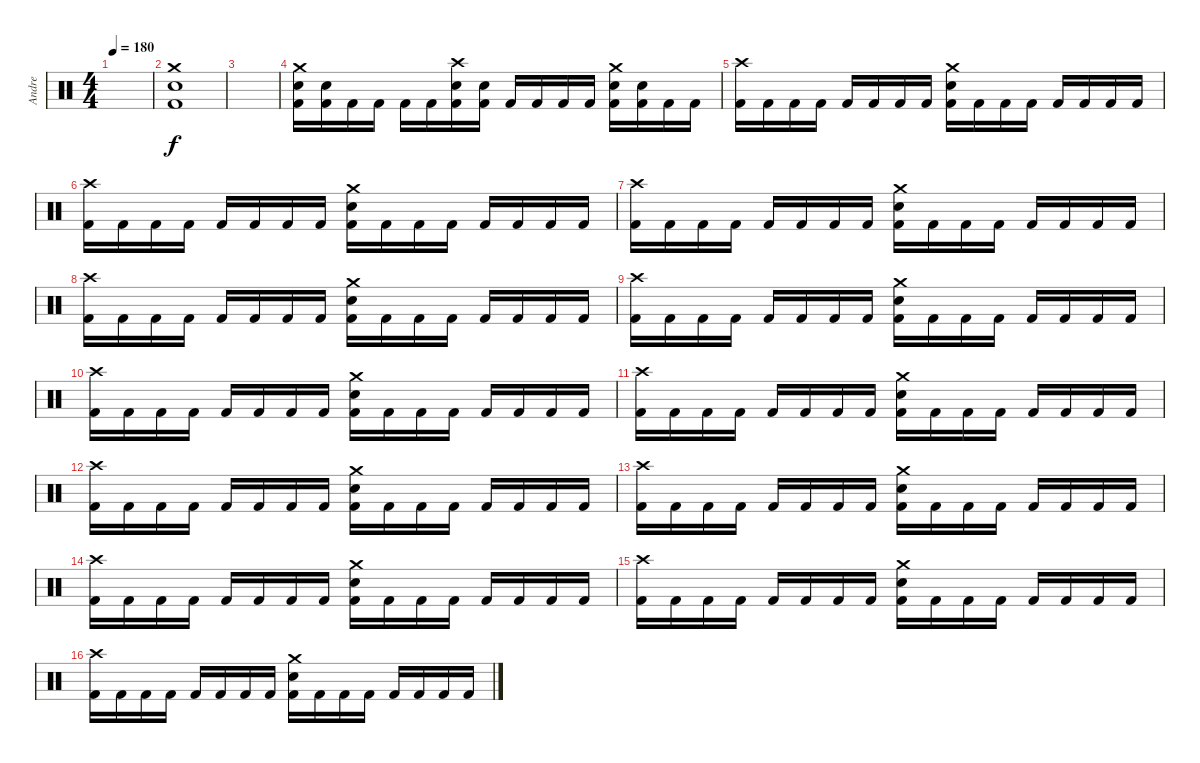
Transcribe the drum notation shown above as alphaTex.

\track ("Andre" "Andre") {instrument percussion}
\staff {score}
\articulation defaults
\ts (4 4)
\tempo 180
\clef neutral
\ks c
|
("Crash medium (hit)" "Snare (hit) 2" "Kick (hit) 2").1 |
|
("Crash medium (hit)" "Snare (hit) 2" "Kick (hit) 2").16 ("Snare (hit) 2" "Kick (hit) 2").16 "Kick (hit) 2".16 "Kick (hit) 2".16 "Kick (hit) 2".16 "Kick (hit) 2".16 ("Crash high (hit)" "Snare (hit) 2" "Kick (hit) 2").16 ("Snare (hit) 2" "Kick (hit) 2").16 "Kick (hit) 2".16 "Kick (hit) 2".16 "Kick (hit) 2".16 "Kick (hit) 2".16 ("Crash medium (hit)" "Snare (hit) 2" "Kick (hit) 2").16 ("Snare (hit) 2" "Kick (hit) 2").16 "Kick (hit) 2".16 "Kick (hit) 2".16 |
("Crash high (hit)" "Kick (hit) 2").16 "Kick (hit) 2".16 "Kick (hit) 2".16 "Kick (hit) 2".16 "Kick (hit) 2".16 "Kick (hit) 2".16 "Kick (hit) 2".16 "Kick (hit) 2".16 ("Crash medium (hit)" "Snare (hit) 2" "Kick (hit) 2").16 "Kick (hit) 2".16 "Kick (hit) 2".16 "Kick (hit) 2".16 "Kick (hit) 2".16 "Kick (hit) 2".16 "Kick (hit) 2".16 "Kick (hit) 2".16 |
("Crash high (hit)" "Kick (hit) 2").16 "Kick (hit) 2".16 "Kick (hit) 2".16 "Kick (hit) 2".16 "Kick (hit) 2".16 "Kick (hit) 2".16 "Kick (hit) 2".16 "Kick (hit) 2".16 ("Crash medium (hit)" "Snare (hit) 2" "Kick (hit) 2").16 "Kick (hit) 2".16 "Kick (hit) 2".16 "Kick (hit) 2".16 "Kick (hit) 2".16 "Kick (hit) 2".16 "Kick (hit) 2".16 "Kick (hit) 2".16 |
("Crash high (hit)" "Kick (hit) 2").16 "Kick (hit) 2".16 "Kick (hit) 2".16 "Kick (hit) 2".16 "Kick (hit) 2".16 "Kick (hit) 2".16 "Kick (hit) 2".16 "Kick (hit) 2".16 ("Crash medium (hit)" "Snare (hit) 2" "Kick (hit) 2").16 "Kick (hit) 2".16 "Kick (hit) 2".16 "Kick (hit) 2".16 "Kick (hit) 2".16 "Kick (hit) 2".16 "Kick (hit) 2".16 "Kick (hit) 2".16 |
("Crash high (hit)" "Kick (hit) 2").16 "Kick (hit) 2".16 "Kick (hit) 2".16 "Kick (hit) 2".16 "Kick (hit) 2".16 "Kick (hit) 2".16 "Kick (hit) 2".16 "Kick (hit) 2".16 ("Crash medium (hit)" "Snare (hit) 2" "Kick (hit) 2").16 "Kick (hit) 2".16 "Kick (hit) 2".16 "Kick (hit) 2".16 "Kick (hit) 2".16 "Kick (hit) 2".16 "Kick (hit) 2".16 "Kick (hit) 2".16 |
("Crash high (hit)" "Kick (hit) 2").16 "Kick (hit) 2".16 "Kick (hit) 2".16 "Kick (hit) 2".16 "Kick (hit) 2".16 "Kick (hit) 2".16 "Kick (hit) 2".16 "Kick (hit) 2".16 ("Crash medium (hit)" "Snare (hit) 2" "Kick (hit) 2").16 "Kick (hit) 2".16 "Kick (hit) 2".16 "Kick (hit) 2".16 "Kick (hit) 2".16 "Kick (hit) 2".16 "Kick (hit) 2".16 "Kick (hit) 2".16 |
("Crash high (hit)" "Kick (hit) 2").16 "Kick (hit) 2".16 "Kick (hit) 2".16 "Kick (hit) 2".16 "Kick (hit) 2".16 "Kick (hit) 2".16 "Kick (hit) 2".16 "Kick (hit) 2".16 ("Crash medium (hit)" "Snare (hit) 2" "Kick (hit) 2").16 "Kick (hit) 2".16 "Kick (hit) 2".16 "Kick (hit) 2".16 "Kick (hit) 2".16 "Kick (hit) 2".16 "Kick (hit) 2".16 "Kick (hit) 2".16 |
("Crash high (hit)" "Kick (hit) 2").16 "Kick (hit) 2".16 "Kick (hit) 2".16 "Kick (hit) 2".16 "Kick (hit) 2".16 "Kick (hit) 2".16 "Kick (hit) 2".16 "Kick (hit) 2".16 ("Crash medium (hit)" "Snare (hit) 2" "Kick (hit) 2").16 "Kick (hit) 2".16 "Kick (hit) 2".16 "Kick (hit) 2".16 "Kick (hit) 2".16 "Kick (hit) 2".16 "Kick (hit) 2".16 "Kick (hit) 2".16 |
("Crash high (hit)" "Kick (hit) 2").16 "Kick (hit) 2".16 "Kick (hit) 2".16 "Kick (hit) 2".16 "Kick (hit) 2".16 "Kick (hit) 2".16 "Kick (hit) 2".16 "Kick (hit) 2".16 ("Crash medium (hit)" "Snare (hit) 2" "Kick (hit) 2").16 "Kick (hit) 2".16 "Kick (hit) 2".16 "Kick (hit) 2".16 "Kick (hit) 2".16 "Kick (hit) 2".16 "Kick (hit) 2".16 "Kick (hit) 2".16 |
("Crash high (hit)" "Kick (hit) 2").16 "Kick (hit) 2".16 "Kick (hit) 2".16 "Kick (hit) 2".16 "Kick (hit) 2".16 "Kick (hit) 2".16 "Kick (hit) 2".16 "Kick (hit) 2".16 ("Crash medium (hit)" "Snare (hit) 2" "Kick (hit) 2").16 "Kick (hit) 2".16 "Kick (hit) 2".16 "Kick (hit) 2".16 "Kick (hit) 2".16 "Kick (hit) 2".16 "Kick (hit) 2".16 "Kick (hit) 2".16 |
("Crash high (hit)" "Kick (hit) 2").16 "Kick (hit) 2".16 "Kick (hit) 2".16 "Kick (hit) 2".16 "Kick (hit) 2".16 "Kick (hit) 2".16 "Kick (hit) 2".16 "Kick (hit) 2".16 ("Crash medium (hit)" "Snare (hit) 2" "Kick (hit) 2").16 "Kick (hit) 2".16 "Kick (hit) 2".16 "Kick (hit) 2".16 "Kick (hit) 2".16 "Kick (hit) 2".16 "Kick (hit) 2".16 "Kick (hit) 2".16 |
("Crash high (hit)" "Kick (hit) 2").16 "Kick (hit) 2".16 "Kick (hit) 2".16 "Kick (hit) 2".16 "Kick (hit) 2".16 "Kick (hit) 2".16 "Kick (hit) 2".16 "Kick (hit) 2".16 ("Crash medium (hit)" "Snare (hit) 2" "Kick (hit) 2").16 "Kick (hit) 2".16 "Kick (hit) 2".16 "Kick (hit) 2".16 "Kick (hit) 2".16 "Kick (hit) 2".16 "Kick (hit) 2".16 "Kick (hit) 2".16 |
("Crash high (hit)" "Kick (hit) 2").16 "Kick (hit) 2".16 "Kick (hit) 2".16 "Kick (hit) 2".16 "Kick (hit) 2".16 "Kick (hit) 2".16 "Kick (hit) 2".16 "Kick (hit) 2".16 ("Crash medium (hit)" "Snare (hit) 2" "Kick (hit) 2").16 "Kick (hit) 2".16 "Kick (hit) 2".16 "Kick (hit) 2".16 "Kick (hit) 2".16 "Kick (hit) 2".16 "Kick (hit) 2".16 "Kick (hit) 2".16
